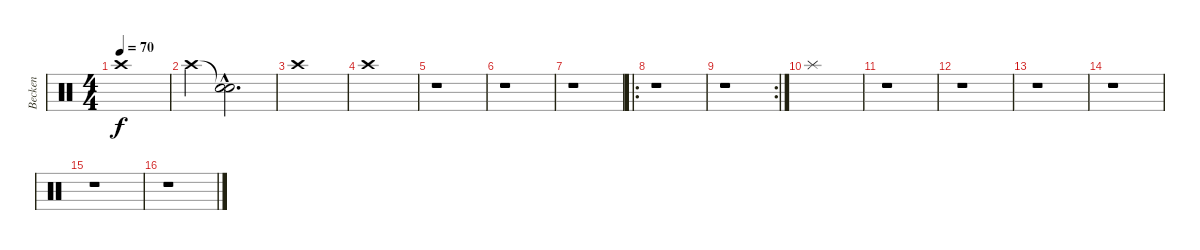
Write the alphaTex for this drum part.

\track ("Becken" "Becken") {instrument percussion}
\staff {score}
\articulation defaults
\ts (4 4)
\tempo 70
\clef neutral
\ks c "Crash high (hit)".1{dy f}
|
"Crash high (hit)".4 ("Snare (hit)"{hac t} "Snare (hit)"{hac t}).2{d} |
"Crash high (hit)".1 |
"Crash high (hit)".1 |
r.1 |
r.1 |
r.1 |
\ro
r.1 |
\rc 2
r.1 |
"Splash (hit)".1 |
r.1 |
r.1 |
r.1 |
r.1 |
r.1 |
r.1
